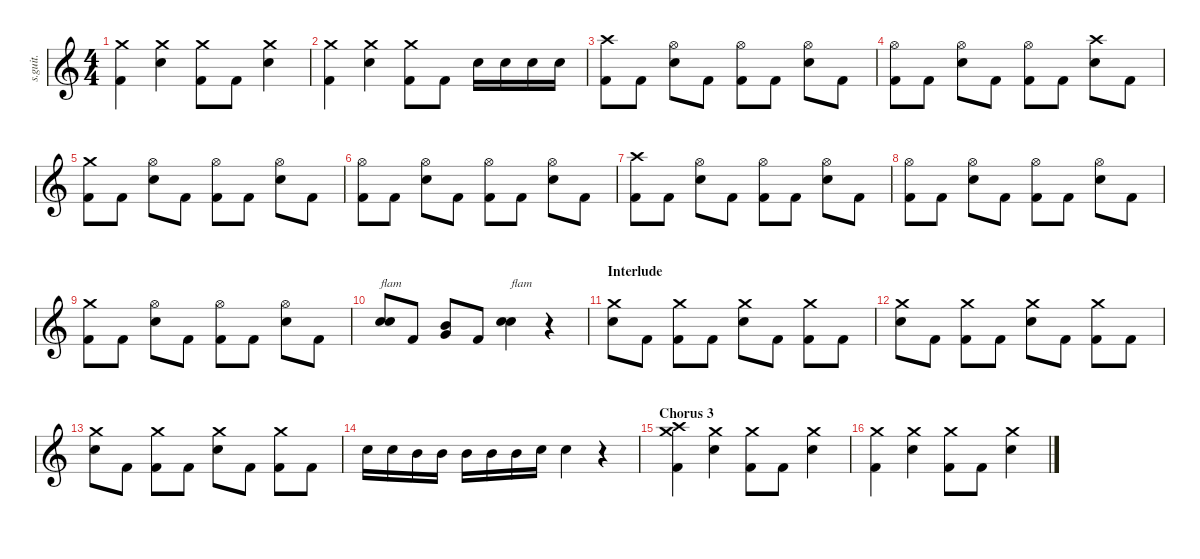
\defaultSystemsLayout 4
\hideDynamics
\bracketExtendMode nobrackets
\track ("Zac Farro | Drums" "s.guit.") {instrument percussion}
\staff {score}
\articulation defaults
\ts (4 4)
\tempo (173 hide)
\clef g2
\ks c
("Crash medium (hit)" "Kick (hit) 2").4{lyrics (0 "") lyrics (1 "") lyrics (2 "") lyrics (3 "") lyrics (4 "") dy f} ("Crash medium (hit)" "Electric Snare (hit)").4{lyrics (0 "") lyrics (1 "") lyrics (2 "") lyrics (3 "") lyrics (4 "")} ("Crash medium (hit)" "Kick (hit) 2").8{lyrics (0 "") lyrics (1 "") lyrics (2 "") lyrics (3 "") lyrics (4 "")} "Kick (hit) 2".8{lyrics (0 "") lyrics (1 "") lyrics (2 "") lyrics (3 "") lyrics (4 "")} ("Crash medium (hit)" "Electric Snare (hit)").4{lyrics (0 "") lyrics (1 "") lyrics (2 "") lyrics (3 "") lyrics (4 "")} |
("Crash medium (hit)" "Kick (hit) 2").4{lyrics (0 "") lyrics (1 "") lyrics (2 "") lyrics (3 "") lyrics (4 "")} ("Crash medium (hit)" "Electric Snare (hit)").4{lyrics (0 "") lyrics (1 "") lyrics (2 "") lyrics (3 "") lyrics (4 "")} ("Crash medium (hit)" "Kick (hit) 2").8{lyrics (0 "") lyrics (1 "") lyrics (2 "") lyrics (3 "") lyrics (4 "")} "Kick (hit) 2".8{lyrics (0 "") lyrics (1 "") lyrics (2 "") lyrics (3 "") lyrics (4 "")} "Electric Snare (hit)".16{lyrics (0 "") lyrics (1 "") lyrics (2 "") lyrics (3 "") lyrics (4 "")} "Electric Snare (hit)".16{lyrics (0 "") lyrics (1 "") lyrics (2 "") lyrics (3 "") lyrics (4 "")} "Electric Snare (hit)".16{lyrics (0 "") lyrics (1 "") lyrics (2 "") lyrics (3 "") lyrics (4 "")} "Electric Snare (hit)".16{lyrics (0 "") lyrics (1 "") lyrics (2 "") lyrics (3 "") lyrics (4 "")} |
("Crash high (hit)" "Kick (hit) 2").8{lyrics (0 "") lyrics (1 "") lyrics (2 "") lyrics (3 "") lyrics (4 "")} "Kick (hit) 2".8{lyrics (0 "") lyrics (1 "") lyrics (2 "") lyrics (3 "") lyrics (4 "")} ("Hi-Hat (open)" "Electric Snare (hit)").8{lyrics (0 "") lyrics (1 "") lyrics (2 "") lyrics (3 "") lyrics (4 "")} "Kick (hit) 2".8{lyrics (0 "") lyrics (1 "") lyrics (2 "") lyrics (3 "") lyrics (4 "")} ("Hi-Hat (open)" "Kick (hit) 2").8{lyrics (0 "") lyrics (1 "") lyrics (2 "") lyrics (3 "") lyrics (4 "")} "Kick (hit) 2".8{lyrics (0 "") lyrics (1 "") lyrics (2 "") lyrics (3 "") lyrics (4 "")} ("Hi-Hat (open)" "Electric Snare (hit)").8{lyrics (0 "") lyrics (1 "") lyrics (2 "") lyrics (3 "") lyrics (4 "")} "Kick (hit) 2".8{lyrics (0 "") lyrics (1 "") lyrics (2 "") lyrics (3 "") lyrics (4 "")} |
("Hi-Hat (open)" "Kick (hit) 2").8{lyrics (0 "") lyrics (1 "") lyrics (2 "") lyrics (3 "") lyrics (4 "")} "Kick (hit) 2".8{lyrics (0 "") lyrics (1 "") lyrics (2 "") lyrics (3 "") lyrics (4 "")} ("Hi-Hat (open)" "Electric Snare (hit)").8{lyrics (0 "") lyrics (1 "") lyrics (2 "") lyrics (3 "") lyrics (4 "")} "Kick (hit) 2".8{lyrics (0 "") lyrics (1 "") lyrics (2 "") lyrics (3 "") lyrics (4 "")} ("Hi-Hat (open)" "Kick (hit) 2").8{lyrics (0 "") lyrics (1 "") lyrics (2 "") lyrics (3 "") lyrics (4 "")} "Kick (hit) 2".8{lyrics (0 "") lyrics (1 "") lyrics (2 "") lyrics (3 "") lyrics (4 "")} ("Crash high (hit)" "Electric Snare (hit)").8{lyrics (0 "") lyrics (1 "") lyrics (2 "") lyrics (3 "") lyrics (4 "")} "Kick (hit) 2".8{lyrics (0 "") lyrics (1 "") lyrics (2 "") lyrics (3 "") lyrics (4 "")} |
("Crash medium (hit)" "Kick (hit) 2").8{lyrics (0 "") lyrics (1 "") lyrics (2 "") lyrics (3 "") lyrics (4 "")} "Kick (hit) 2".8{lyrics (0 "") lyrics (1 "") lyrics (2 "") lyrics (3 "") lyrics (4 "")} ("Hi-Hat (open)" "Electric Snare (hit)").8{lyrics (0 "") lyrics (1 "") lyrics (2 "") lyrics (3 "") lyrics (4 "")} "Kick (hit) 2".8{lyrics (0 "") lyrics (1 "") lyrics (2 "") lyrics (3 "") lyrics (4 "")} ("Hi-Hat (open)" "Kick (hit) 2").8{lyrics (0 "") lyrics (1 "") lyrics (2 "") lyrics (3 "") lyrics (4 "")} "Kick (hit) 2".8{lyrics (0 "") lyrics (1 "") lyrics (2 "") lyrics (3 "") lyrics (4 "")} ("Hi-Hat (open)" "Electric Snare (hit)").8{lyrics (0 "") lyrics (1 "") lyrics (2 "") lyrics (3 "") lyrics (4 "")} "Kick (hit) 2".8{lyrics (0 "") lyrics (1 "") lyrics (2 "") lyrics (3 "") lyrics (4 "")} |
("Hi-Hat (open)" "Kick (hit) 2").8{lyrics (0 "") lyrics (1 "") lyrics (2 "") lyrics (3 "") lyrics (4 "")} "Kick (hit) 2".8{lyrics (0 "") lyrics (1 "") lyrics (2 "") lyrics (3 "") lyrics (4 "")} ("Hi-Hat (open)" "Electric Snare (hit)").8{lyrics (0 "") lyrics (1 "") lyrics (2 "") lyrics (3 "") lyrics (4 "")} "Kick (hit) 2".8{lyrics (0 "") lyrics (1 "") lyrics (2 "") lyrics (3 "") lyrics (4 "")} ("Hi-Hat (open)" "Kick (hit) 2").8{lyrics (0 "") lyrics (1 "") lyrics (2 "") lyrics (3 "") lyrics (4 "")} "Kick (hit) 2".8{lyrics (0 "") lyrics (1 "") lyrics (2 "") lyrics (3 "") lyrics (4 "")} ("Hi-Hat (open)" "Electric Snare (hit)").8{lyrics (0 "") lyrics (1 "") lyrics (2 "") lyrics (3 "") lyrics (4 "")} "Kick (hit) 2".8{lyrics (0 "") lyrics (1 "") lyrics (2 "") lyrics (3 "") lyrics (4 "")} |
("Crash high (hit)" "Kick (hit) 2").8{lyrics (0 "") lyrics (1 "") lyrics (2 "") lyrics (3 "") lyrics (4 "")} "Kick (hit) 2".8{lyrics (0 "") lyrics (1 "") lyrics (2 "") lyrics (3 "") lyrics (4 "")} ("Hi-Hat (open)" "Electric Snare (hit)").8{lyrics (0 "") lyrics (1 "") lyrics (2 "") lyrics (3 "") lyrics (4 "")} "Kick (hit) 2".8{lyrics (0 "") lyrics (1 "") lyrics (2 "") lyrics (3 "") lyrics (4 "")} ("Hi-Hat (open)" "Kick (hit) 2").8{lyrics (0 "") lyrics (1 "") lyrics (2 "") lyrics (3 "") lyrics (4 "")} "Kick (hit) 2".8{lyrics (0 "") lyrics (1 "") lyrics (2 "") lyrics (3 "") lyrics (4 "")} ("Hi-Hat (open)" "Electric Snare (hit)").8{lyrics (0 "") lyrics (1 "") lyrics (2 "") lyrics (3 "") lyrics (4 "")} "Kick (hit) 2".8{lyrics (0 "") lyrics (1 "") lyrics (2 "") lyrics (3 "") lyrics (4 "")} |
("Hi-Hat (open)" "Kick (hit) 2").8{lyrics (0 "") lyrics (1 "") lyrics (2 "") lyrics (3 "") lyrics (4 "")} "Kick (hit) 2".8{lyrics (0 "") lyrics (1 "") lyrics (2 "") lyrics (3 "") lyrics (4 "")} ("Hi-Hat (open)" "Electric Snare (hit)").8{lyrics (0 "") lyrics (1 "") lyrics (2 "") lyrics (3 "") lyrics (4 "")} "Kick (hit) 2".8{lyrics (0 "") lyrics (1 "") lyrics (2 "") lyrics (3 "") lyrics (4 "")} ("Hi-Hat (open)" "Kick (hit) 2").8{lyrics (0 "") lyrics (1 "") lyrics (2 "") lyrics (3 "") lyrics (4 "")} "Kick (hit) 2".8{lyrics (0 "") lyrics (1 "") lyrics (2 "") lyrics (3 "") lyrics (4 "")} ("Hi-Hat (open)" "Electric Snare (hit)").8{lyrics (0 "") lyrics (1 "") lyrics (2 "") lyrics (3 "") lyrics (4 "")} "Kick (hit) 2".8{lyrics (0 "") lyrics (1 "") lyrics (2 "") lyrics (3 "") lyrics (4 "")} |
("Crash medium (hit)" "Kick (hit) 2").8{lyrics (0 "") lyrics (1 "") lyrics (2 "") lyrics (3 "") lyrics (4 "")} "Kick (hit) 2".8{lyrics (0 "") lyrics (1 "") lyrics (2 "") lyrics (3 "") lyrics (4 "")} ("Hi-Hat (open)" "Electric Snare (hit)").8{lyrics (0 "") lyrics (1 "") lyrics (2 "") lyrics (3 "") lyrics (4 "")} "Kick (hit) 2".8{lyrics (0 "") lyrics (1 "") lyrics (2 "") lyrics (3 "") lyrics (4 "")} ("Hi-Hat (open)" "Kick (hit) 2").8{lyrics (0 "") lyrics (1 "") lyrics (2 "") lyrics (3 "") lyrics (4 "")} "Kick (hit) 2".8{lyrics (0 "") lyrics (1 "") lyrics (2 "") lyrics (3 "") lyrics (4 "")} ("Hi-Hat (open)" "Electric Snare (hit)").8{lyrics (0 "") lyrics (1 "") lyrics (2 "") lyrics (3 "") lyrics (4 "")} "Kick (hit) 2".8{lyrics (0 "") lyrics (1 "") lyrics (2 "") lyrics (3 "") lyrics (4 "")} |
("Electric Snare (hit)" "Electric Snare (hit)").8{bd 30 txt "flam" lyrics (0 "") lyrics (1 "") lyrics (2 "") lyrics (3 "") lyrics (4 "")} "Kick (hit) 2".8{lyrics (0 "") lyrics (1 "") lyrics (2 "") lyrics (3 "") lyrics (4 "")} ("Mid Tom (hit)" "Very Low Tom (hit)").8{lyrics (0 "") lyrics (1 "") lyrics (2 "") lyrics (3 "") lyrics (4 "")} "Kick (hit) 2".8{lyrics (0 "") lyrics (1 "") lyrics (2 "") lyrics (3 "") lyrics (4 "")} ("Electric Snare (hit)" "Electric Snare (hit)").4{bd 30 txt "flam" lyrics (0 "") lyrics (1 "") lyrics (2 "") lyrics (3 "") lyrics (4 "")} r.4 |
\section ("" "Interlude")
("Crash medium (hit)" "Electric Snare (hit)").8{lyrics (0 "") lyrics (1 "") lyrics (2 "") lyrics (3 "") lyrics (4 "")} "Kick (hit) 2".8{lyrics (0 "") lyrics (1 "") lyrics (2 "") lyrics (3 "") lyrics (4 "")} ("Crash medium (hit)" "Kick (hit) 2").8{lyrics (0 "") lyrics (1 "") lyrics (2 "") lyrics (3 "") lyrics (4 "")} "Kick (hit) 2".8{lyrics (0 "") lyrics (1 "") lyrics (2 "") lyrics (3 "") lyrics (4 "")} ("Crash medium (hit)" "Electric Snare (hit)").8{lyrics (0 "") lyrics (1 "") lyrics (2 "") lyrics (3 "") lyrics (4 "")} "Kick (hit) 2".8{lyrics (0 "") lyrics (1 "") lyrics (2 "") lyrics (3 "") lyrics (4 "")} ("Crash medium (hit)" "Kick (hit) 2").8{lyrics (0 "") lyrics (1 "") lyrics (2 "") lyrics (3 "") lyrics (4 "")} "Kick (hit) 2".8{lyrics (0 "") lyrics (1 "") lyrics (2 "") lyrics (3 "") lyrics (4 "")} |
("Crash medium (hit)" "Electric Snare (hit)").8{lyrics (0 "") lyrics (1 "") lyrics (2 "") lyrics (3 "") lyrics (4 "")} "Kick (hit) 2".8{lyrics (0 "") lyrics (1 "") lyrics (2 "") lyrics (3 "") lyrics (4 "")} ("Crash medium (hit)" "Kick (hit) 2").8{lyrics (0 "") lyrics (1 "") lyrics (2 "") lyrics (3 "") lyrics (4 "")} "Kick (hit) 2".8{lyrics (0 "") lyrics (1 "") lyrics (2 "") lyrics (3 "") lyrics (4 "")} ("Crash medium (hit)" "Electric Snare (hit)").8{lyrics (0 "") lyrics (1 "") lyrics (2 "") lyrics (3 "") lyrics (4 "")} "Kick (hit) 2".8{lyrics (0 "") lyrics (1 "") lyrics (2 "") lyrics (3 "") lyrics (4 "")} ("Crash medium (hit)" "Kick (hit) 2").8{lyrics (0 "") lyrics (1 "") lyrics (2 "") lyrics (3 "") lyrics (4 "")} "Kick (hit) 2".8{lyrics (0 "") lyrics (1 "") lyrics (2 "") lyrics (3 "") lyrics (4 "")} |
("Crash medium (hit)" "Electric Snare (hit)").8{lyrics (0 "") lyrics (1 "") lyrics (2 "") lyrics (3 "") lyrics (4 "")} "Kick (hit) 2".8{lyrics (0 "") lyrics (1 "") lyrics (2 "") lyrics (3 "") lyrics (4 "")} ("Crash medium (hit)" "Kick (hit) 2").8{lyrics (0 "") lyrics (1 "") lyrics (2 "") lyrics (3 "") lyrics (4 "")} "Kick (hit) 2".8{lyrics (0 "") lyrics (1 "") lyrics (2 "") lyrics (3 "") lyrics (4 "")} ("Crash medium (hit)" "Electric Snare (hit)").8{lyrics (0 "") lyrics (1 "") lyrics (2 "") lyrics (3 "") lyrics (4 "")} "Kick (hit) 2".8{lyrics (0 "") lyrics (1 "") lyrics (2 "") lyrics (3 "") lyrics (4 "")} ("Crash medium (hit)" "Kick (hit) 2").8{lyrics (0 "") lyrics (1 "") lyrics (2 "") lyrics (3 "") lyrics (4 "")} "Kick (hit) 2".8{lyrics (0 "") lyrics (1 "") lyrics (2 "") lyrics (3 "") lyrics (4 "")} |
"Electric Snare (hit)".16{lyrics (0 "") lyrics (1 "") lyrics (2 "") lyrics (3 "") lyrics (4 "")} "Electric Snare (hit)".16{lyrics (0 "") lyrics (1 "") lyrics (2 "") lyrics (3 "") lyrics (4 "")} "Mid Tom (hit)".16{lyrics (0 "") lyrics (1 "") lyrics (2 "") lyrics (3 "") lyrics (4 "")} "Mid Tom (hit)".16{lyrics (0 "") lyrics (1 "") lyrics (2 "") lyrics (3 "") lyrics (4 "")} "Mid Tom (hit)".16{lyrics (0 "") lyrics (1 "") lyrics (2 "") lyrics (3 "") lyrics (4 "")} "Mid Tom (hit)".16{lyrics (0 "") lyrics (1 "") lyrics (2 "") lyrics (3 "") lyrics (4 "")} "Mid Tom (hit)".16{lyrics (0 "") lyrics (1 "") lyrics (2 "") lyrics (3 "") lyrics (4 "")} "Electric Snare (hit)".16{lyrics (0 "") lyrics (1 "") lyrics (2 "") lyrics (3 "") lyrics (4 "")} "Electric Snare (hit)".4{lyrics (0 "") lyrics (1 "") lyrics (2 "") lyrics (3 "") lyrics (4 "")} r.4 |
\section ("" "Chorus 3")
("Crash high (hit)" "Crash medium (hit)" "Kick (hit) 2").4{lyrics (0 "") lyrics (1 "") lyrics (2 "") lyrics (3 "") lyrics (4 "")} ("Crash medium (hit)" "Electric Snare (hit)").4{lyrics (0 "") lyrics (1 "") lyrics (2 "") lyrics (3 "") lyrics (4 "")} ("Crash medium (hit)" "Kick (hit) 2").8{lyrics (0 "") lyrics (1 "") lyrics (2 "") lyrics (3 "") lyrics (4 "")} "Kick (hit) 2".8{lyrics (0 "") lyrics (1 "") lyrics (2 "") lyrics (3 "") lyrics (4 "")} ("Crash medium (hit)" "Electric Snare (hit)").4{lyrics (0 "") lyrics (1 "") lyrics (2 "") lyrics (3 "") lyrics (4 "")} |
("Crash medium (hit)" "Kick (hit) 2").4{lyrics (0 "") lyrics (1 "") lyrics (2 "") lyrics (3 "") lyrics (4 "")} ("Crash medium (hit)" "Electric Snare (hit)").4{lyrics (0 "") lyrics (1 "") lyrics (2 "") lyrics (3 "") lyrics (4 "")} ("Crash medium (hit)" "Kick (hit) 2").8{lyrics (0 "") lyrics (1 "") lyrics (2 "") lyrics (3 "") lyrics (4 "")} "Kick (hit) 2".8{lyrics (0 "") lyrics (1 "") lyrics (2 "") lyrics (3 "") lyrics (4 "")} ("Crash medium (hit)" "Electric Snare (hit)").4{lyrics (0 "") lyrics (1 "") lyrics (2 "") lyrics (3 "") lyrics (4 "")}
